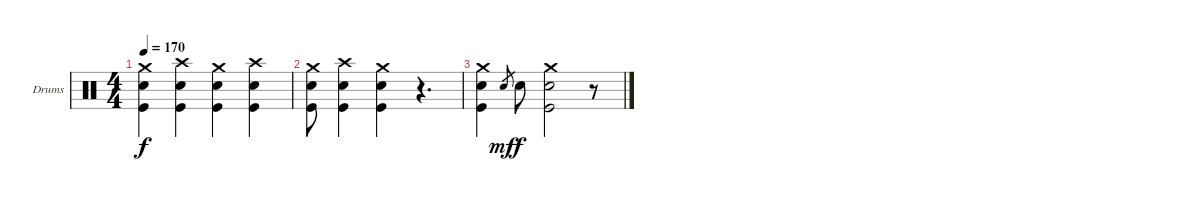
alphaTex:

\bracketExtendMode groupsimilarinstruments
\firstSystemTrackNameOrientation horizontal
\otherSystemsTrackNameOrientation horizontal
\track ("Ударные" "Drums") {instrument percussion}
\staff {score}
\articulation defaults
\ts (4 4)
\tempo 170
\clef neutral
\ks c
("Crash medium (hit)" "Snare (hit) 2" "Kick (hit)").4{dy f} ("Crash high (hit)" "Snare (hit) 2" "Kick (hit)").4 ("Crash medium (hit)" "Snare (hit) 2" "Kick (hit)").4 ("Crash high (hit)" "Snare (hit) 2" "Kick (hit)").4 |
("Crash medium (hit)" "Snare (hit) 2" "Kick (hit)").8 ("Crash high (hit)" "Snare (hit) 2" "Kick (hit)").4 ("Crash medium (hit)" "Snare (hit) 2" "Kick (hit)").4 r.4{d} |
("Crash medium (hit)" "Snare (hit) 2" "Kick (hit)").4 "Snare (hit) 2".8{gr dy mf} "Snare (hit) 2".8{dy f} ("Crash medium (hit)" "Snare (hit) 2" "Kick (hit)").2 r.8
